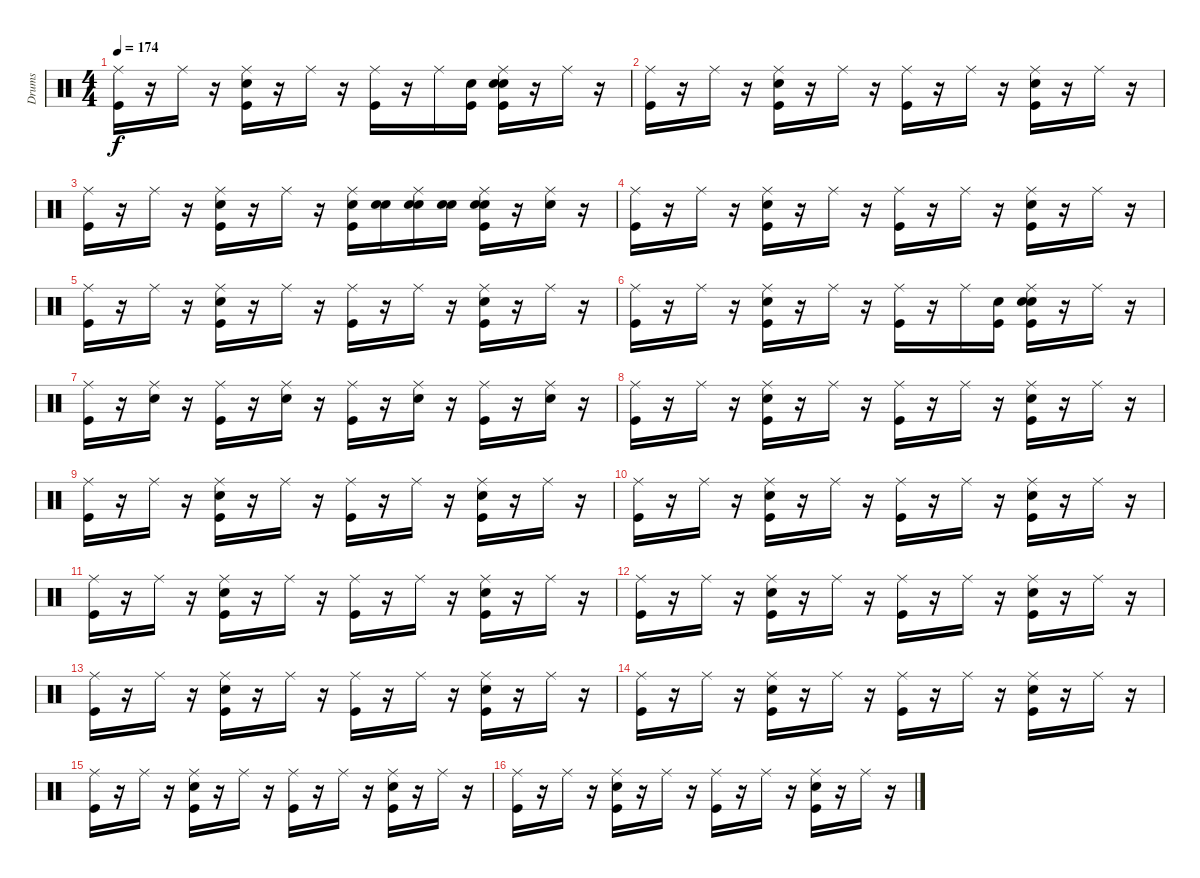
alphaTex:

\track ("Drums" "Drums") {instrument percussion}
\staff {score}
\articulation defaults
\ts (4 4)
\tempo 174
\clef neutral
\ks c
("Kick (hit)" "Ride (middle)").16{dy f} r.16 "Ride (middle)".16 r.16 ("Kick (hit)" "Snare (hit) 2" "Ride (middle)").16 r.16 "Ride (middle)".16 r.16 ("Kick (hit)" "Ride (middle)").16 r.16 "Ride (middle)".16 ("Snare (hit)" "Kick (hit)").16 ("Snare (hit)" "Kick (hit)" "Snare (hit) 2" "Ride (middle)").16 r.16 "Ride (middle)".16 r.16 |
("Kick (hit)" "Ride (middle)").16 r.16 "Ride (middle)".16 r.16 ("Kick (hit)" "Snare (hit) 2" "Ride (middle)").16 r.16 "Ride (middle)".16 r.16 ("Kick (hit)" "Ride (middle)").16 r.16 "Ride (middle)".16 r.16 ("Kick (hit)" "Snare (hit) 2" "Ride (middle)").16 r.16 "Ride (middle)".16 r.16 |
("Kick (hit)" "Ride (middle)").16 r.16 "Ride (middle)".16 r.16 ("Kick (hit)" "Snare (hit) 2" "Ride (middle)").16 r.16 "Ride (middle)".16 r.16 ("Snare (hit) 2" "Kick (hit)" "Ride (middle)").16 ("Snare (hit)" "Snare (hit) 2").16 ("Snare (hit)" "Snare (hit) 2" "Ride (middle)").16 ("Snare (hit)" "Snare (hit) 2").16 ("Snare (hit)" "Snare (hit) 2" "Kick (hit)" "Ride (middle)").16 r.16 ("Ride (middle)" "Snare (hit) 2").16 r.16 |
("Kick (hit)" "Ride (middle)").16 r.16 "Ride (middle)".16 r.16 ("Snare (hit) 2" "Kick (hit)" "Ride (middle)").16 r.16 "Ride (middle)".16 r.16 ("Kick (hit)" "Ride (middle)").16 r.16 "Ride (middle)".16 r.16 ("Snare (hit) 2" "Kick (hit)" "Ride (middle)").16 r.16 "Ride (middle)".16 r.16 |
("Kick (hit)" "Ride (middle)").16 r.16 "Ride (middle)".16 r.16 ("Kick (hit)" "Snare (hit) 2" "Ride (middle)").16 r.16 "Ride (middle)".16 r.16 ("Kick (hit)" "Ride (middle)").16 r.16 "Ride (middle)".16 r.16 ("Kick (hit)" "Snare (hit) 2" "Ride (middle)").16 r.16 "Ride (middle)".16 r.16 |
("Kick (hit)" "Ride (middle)").16 r.16 "Ride (middle)".16 r.16 ("Kick (hit)" "Snare (hit) 2" "Ride (middle)").16 r.16 "Ride (middle)".16 r.16 ("Kick (hit)" "Ride (middle)").16 r.16 "Ride (middle)".16 ("Snare (hit)" "Kick (hit)").16 ("Snare (hit)" "Kick (hit)" "Snare (hit) 2" "Ride (middle)").16 r.16 "Ride (middle)".16 r.16 |
("Kick (hit)" "Ride (middle)").16 r.16 ("Snare (hit) 2" "Ride (middle)").16 r.16 ("Kick (hit)" "Ride (middle)").16 r.16 ("Snare (hit) 2" "Ride (middle)").16 r.16 ("Kick (hit)" "Ride (middle)").16 r.16 ("Snare (hit) 2" "Ride (middle)").16 r.16 ("Kick (hit)" "Ride (middle)").16 r.16 ("Snare (hit) 2" "Ride (middle)").16 r.16 |
("Kick (hit)" "Ride (middle)").16 r.16 "Ride (middle)".16 r.16 ("Kick (hit)" "Snare (hit) 2" "Ride (middle)").16 r.16 "Ride (middle)".16 r.16 ("Kick (hit)" "Ride (middle)").16 r.16 "Ride (middle)".16 r.16 ("Kick (hit)" "Snare (hit) 2" "Ride (middle)").16 r.16 "Ride (middle)".16 r.16 |
("Kick (hit)" "Ride (middle)").16 r.16 "Ride (middle)".16 r.16 ("Kick (hit)" "Snare (hit) 2" "Ride (middle)").16 r.16 "Ride (middle)".16 r.16 ("Kick (hit)" "Ride (middle)").16 r.16 "Ride (middle)".16 r.16 ("Kick (hit)" "Snare (hit) 2" "Ride (middle)").16 r.16 "Ride (middle)".16 r.16 |
("Kick (hit)" "Ride (middle)").16 r.16 "Ride (middle)".16 r.16 ("Kick (hit)" "Snare (hit) 2" "Ride (middle)").16 r.16 "Ride (middle)".16 r.16 ("Kick (hit)" "Ride (middle)").16 r.16 "Ride (middle)".16 r.16 ("Kick (hit)" "Snare (hit) 2" "Ride (middle)").16 r.16 "Ride (middle)".16 r.16 |
("Kick (hit)" "Ride (middle)").16 r.16 "Ride (middle)".16 r.16 ("Kick (hit)" "Snare (hit) 2" "Ride (middle)").16 r.16 "Ride (middle)".16 r.16 ("Kick (hit)" "Ride (middle)").16 r.16 "Ride (middle)".16 r.16 ("Kick (hit)" "Snare (hit) 2" "Ride (middle)").16 r.16 "Ride (middle)".16 r.16 |
("Kick (hit)" "Ride (middle)").16 r.16 "Ride (middle)".16 r.16 ("Kick (hit)" "Snare (hit) 2" "Ride (middle)").16 r.16 "Ride (middle)".16 r.16 ("Kick (hit)" "Ride (middle)").16 r.16 "Ride (middle)".16 r.16 ("Kick (hit)" "Snare (hit) 2" "Ride (middle)").16 r.16 "Ride (middle)".16 r.16 |
("Kick (hit)" "Ride (middle)").16 r.16 "Ride (middle)".16 r.16 ("Kick (hit)" "Snare (hit) 2" "Ride (middle)").16 r.16 "Ride (middle)".16 r.16 ("Kick (hit)" "Ride (middle)").16 r.16 "Ride (middle)".16 r.16 ("Kick (hit)" "Snare (hit) 2" "Ride (middle)").16 r.16 "Ride (middle)".16 r.16 |
("Kick (hit)" "Ride (middle)").16 r.16 "Ride (middle)".16 r.16 ("Kick (hit)" "Snare (hit) 2" "Ride (middle)").16 r.16 "Ride (middle)".16 r.16 ("Kick (hit)" "Ride (middle)").16 r.16 "Ride (middle)".16 r.16 ("Kick (hit)" "Snare (hit) 2" "Ride (middle)").16 r.16 "Ride (middle)".16 r.16 |
("Kick (hit)" "Ride (middle)").16 r.16 "Ride (middle)".16 r.16 ("Kick (hit)" "Snare (hit) 2" "Ride (middle)").16 r.16 "Ride (middle)".16 r.16 ("Kick (hit)" "Ride (middle)").16 r.16 "Ride (middle)".16 r.16 ("Kick (hit)" "Snare (hit) 2" "Ride (middle)").16 r.16 "Ride (middle)".16 r.16 |
("Kick (hit)" "Ride (middle)").16 r.16 "Ride (middle)".16 r.16 ("Kick (hit)" "Snare (hit) 2" "Ride (middle)").16 r.16 "Ride (middle)".16 r.16 ("Kick (hit)" "Ride (middle)").16 r.16 "Ride (middle)".16 r.16 ("Kick (hit)" "Snare (hit) 2" "Ride (middle)").16 r.16 "Ride (middle)".16 r.16
